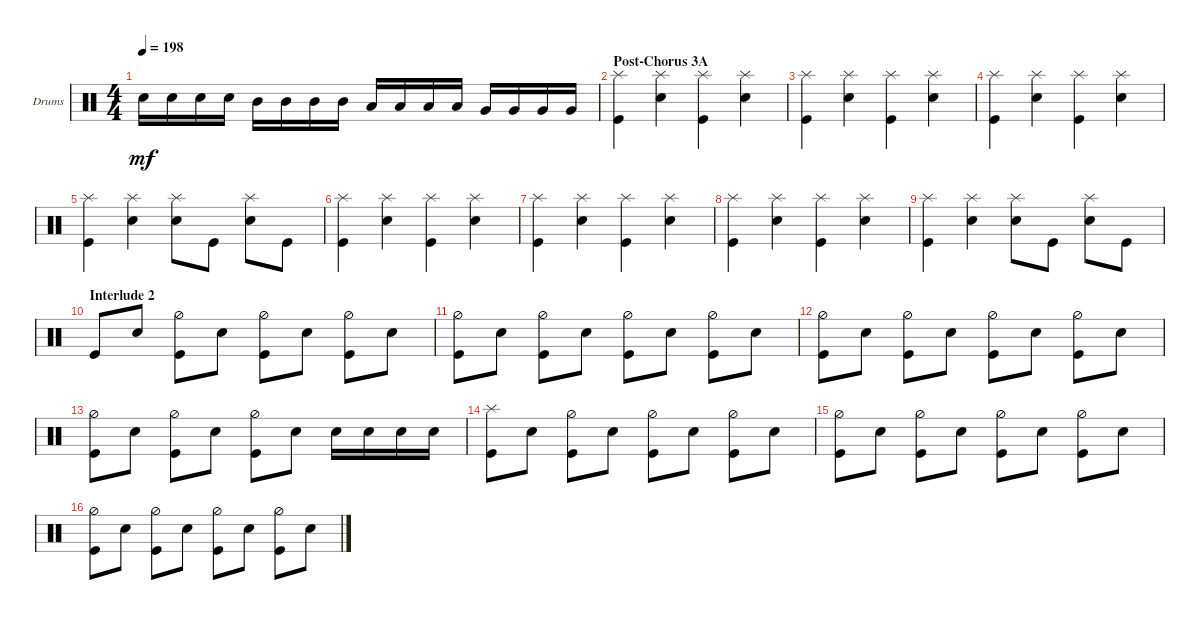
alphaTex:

\bracketExtendMode groupsimilarinstruments
\firstSystemTrackNameOrientation horizontal
\otherSystemsTrackNameOrientation horizontal
\track ("Drumkit" "Drums") {instrument percussion}
\staff {score}
\articulation defaults
\ts (4 4)
\tempo 198
\clef neutral
\ks c "Snare (hit) 2".16{dy mf} "Snare (hit) 2".16 "Snare (hit) 2".16 "Snare (hit) 2".16 "Mid Tom (hit)".16 "Mid Tom (hit)".16 "Mid Tom (hit)".16 "Mid Tom (hit)".16 "Low Tom (hit)".16 "Low Tom (hit)".16 "Low Tom (hit)".16 "Low Tom (hit)".16 "Very Low Tom (hit)".16 "Very Low Tom (hit)".16 "Very Low Tom (hit)".16 "Very Low Tom (hit)".16
|
\section ("" "Post-Chorus 3A")
("Splash (hit)" "Kick (hit)").4 ("Splash (hit)" "Snare (hit) 2").4 ("Splash (hit)" "Kick (hit)").4 ("Splash (hit)" "Snare (hit) 2").4 |
("Splash (hit)" "Kick (hit)").4 ("Splash (hit)" "Snare (hit) 2").4 ("Splash (hit)" "Kick (hit)").4 ("Splash (hit)" "Snare (hit) 2").4 |
("Splash (hit)" "Kick (hit)").4 ("Splash (hit)" "Snare (hit) 2").4 ("Splash (hit)" "Kick (hit)").4 ("Splash (hit)" "Snare (hit) 2").4 |
("Splash (hit)" "Kick (hit)").4 ("Splash (hit)" "Snare (hit) 2").4 ("Splash (hit)" "Snare (hit) 2").8 "Kick (hit)".8 ("Snare (hit) 2" "Splash (hit)").8 "Kick (hit)".8 |
("Splash (hit)" "Kick (hit)").4 ("Splash (hit)" "Snare (hit) 2").4 ("Splash (hit)" "Kick (hit)").4 ("Splash (hit)" "Snare (hit) 2").4 |
("Splash (hit)" "Kick (hit)").4 ("Splash (hit)" "Snare (hit) 2").4 ("Splash (hit)" "Kick (hit)").4 ("Splash (hit)" "Snare (hit) 2").4 |
("Splash (hit)" "Kick (hit)").4 ("Splash (hit)" "Snare (hit) 2").4 ("Splash (hit)" "Kick (hit)").4 ("Splash (hit)" "Snare (hit) 2").4 |
("Splash (hit)" "Kick (hit)").4 ("Splash (hit)" "Snare (hit) 2").4 ("Splash (hit)" "Snare (hit) 2").8 "Kick (hit)".8 ("Snare (hit) 2" "Splash (hit)").8 "Kick (hit)".8 |
\section ("" "Interlude 2")
"Kick (hit)".8 "Snare (hit) 2".8 ("Kick (hit)" "Hi-Hat (half)").8 "Snare (hit) 2".8 ("Kick (hit)" "Hi-Hat (half)").8 "Snare (hit) 2".8 ("Kick (hit)" "Hi-Hat (half)").8 "Snare (hit) 2".8 |
("Kick (hit)" "Hi-Hat (half)").8 "Snare (hit) 2".8 ("Kick (hit)" "Hi-Hat (half)").8 "Snare (hit) 2".8 ("Kick (hit)" "Hi-Hat (half)").8 "Snare (hit) 2".8 ("Kick (hit)" "Hi-Hat (half)").8 "Snare (hit) 2".8 |
("Kick (hit)" "Hi-Hat (half)").8 "Snare (hit) 2".8 ("Kick (hit)" "Hi-Hat (half)").8 "Snare (hit) 2".8 ("Kick (hit)" "Hi-Hat (half)").8 "Snare (hit) 2".8 ("Kick (hit)" "Hi-Hat (half)").8 "Snare (hit) 2".8 |
("Kick (hit)" "Hi-Hat (half)").8 "Snare (hit) 2".8 ("Kick (hit)" "Hi-Hat (half)").8 "Snare (hit) 2".8 ("Hi-Hat (half)" "Kick (hit)").8 "Snare (hit) 2".8 "Snare (hit) 2".16 "Snare (hit) 2".16 "Snare (hit) 2".16 "Snare (hit) 2".16 |
("Kick (hit)" "Splash (hit)").8 "Snare (hit) 2".8 ("Kick (hit)" "Hi-Hat (half)").8 "Snare (hit) 2".8 ("Kick (hit)" "Hi-Hat (half)").8 "Snare (hit) 2".8 ("Kick (hit)" "Hi-Hat (half)").8 "Snare (hit) 2".8 |
("Kick (hit)" "Hi-Hat (half)").8 "Snare (hit) 2".8 ("Kick (hit)" "Hi-Hat (half)").8 "Snare (hit) 2".8 ("Kick (hit)" "Hi-Hat (half)").8 "Snare (hit) 2".8 ("Kick (hit)" "Hi-Hat (half)").8 "Snare (hit) 2".8 |
("Kick (hit)" "Hi-Hat (half)").8 "Snare (hit) 2".8 ("Kick (hit)" "Hi-Hat (half)").8 "Snare (hit) 2".8 ("Kick (hit)" "Hi-Hat (half)").8 "Snare (hit) 2".8 ("Kick (hit)" "Hi-Hat (half)").8 "Snare (hit) 2".8
